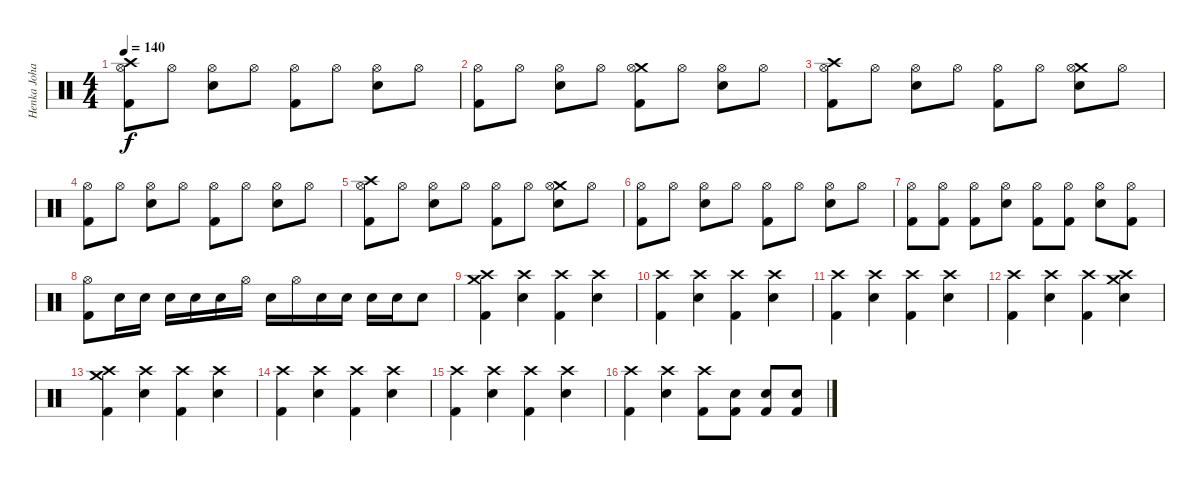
\track ("Henka Johannson " "Henka Joha") {instrument percussion}
\staff {score}
\articulation defaults
\ts (4 4)
\tempo 140
\clef neutral
\ks c
("Crash high (hit)" "Hi-Hat (open)" "Kick (hit) 2").8{dy f} "Hi-Hat (open)".8 ("Hi-Hat (open)" "Electric Snare (hit)").8 "Hi-Hat (open)".8 ("Hi-Hat (open)" "Kick (hit) 2").8 "Hi-Hat (open)".8 ("Hi-Hat (open)" "Electric Snare (hit)").8 "Hi-Hat (open)".8 |
("Hi-Hat (open)" "Kick (hit) 2").8 "Hi-Hat (open)".8 ("Hi-Hat (open)" "Electric Snare (hit)").8 "Hi-Hat (open)".8 ("Crash medium (hit)" "Hi-Hat (open)" "Kick (hit) 2").8 "Hi-Hat (open)".8 ("Hi-Hat (open)" "Electric Snare (hit)").8 "Hi-Hat (open)".8 |
("Crash high (hit)" "Hi-Hat (open)" "Kick (hit) 2").8 "Hi-Hat (open)".8 ("Hi-Hat (open)" "Electric Snare (hit)").8 "Hi-Hat (open)".8 ("Hi-Hat (open)" "Kick (hit) 2").8 "Hi-Hat (open)".8 ("Crash medium (hit)" "Hi-Hat (open)" "Electric Snare (hit)").8 "Hi-Hat (open)".8 |
("Hi-Hat (open)" "Kick (hit) 2").8 "Hi-Hat (open)".8 ("Hi-Hat (open)" "Electric Snare (hit)").8 "Hi-Hat (open)".8 ("Hi-Hat (open)" "Kick (hit) 2").8 "Hi-Hat (open)".8 ("Hi-Hat (open)" "Electric Snare (hit)").8 "Hi-Hat (open)".8 |
("Crash high (hit)" "Hi-Hat (open)" "Kick (hit) 2").8 "Hi-Hat (open)".8 ("Hi-Hat (open)" "Electric Snare (hit)").8 "Hi-Hat (open)".8 ("Hi-Hat (open)" "Kick (hit) 2").8 "Hi-Hat (open)".8 ("Crash medium (hit)" "Hi-Hat (open)" "Electric Snare (hit)").8 "Hi-Hat (open)".8 |
("Hi-Hat (open)" "Kick (hit) 2").8 "Hi-Hat (open)".8 ("Hi-Hat (open)" "Electric Snare (hit)").8 "Hi-Hat (open)".8 ("Hi-Hat (open)" "Kick (hit) 2").8 "Hi-Hat (open)".8 ("Hi-Hat (open)" "Electric Snare (hit)").8 "Hi-Hat (open)".8 |
("Hi-Hat (open)" "Kick (hit) 2").8 ("Hi-Hat (open)" "Kick (hit) 2").8 ("Hi-Hat (open)" "Kick (hit) 2").8 ("Hi-Hat (open)" "Electric Snare (hit)").8 ("Hi-Hat (open)" "Kick (hit) 2").8 ("Hi-Hat (open)" "Kick (hit) 2").8 ("Hi-Hat (open)" "Electric Snare (hit)").8 ("Hi-Hat (open)" "Kick (hit) 2").8 |
("Hi-Hat (open)" "Kick (hit) 2").8 "Electric Snare (hit)".16 "Electric Snare (hit)".16 "Electric Snare (hit)".16 "Electric Snare (hit)".16 "Electric Snare (hit)".16 "Hi-Hat (open)".16 "Electric Snare (hit)".16 "Hi-Hat (open)".16 "Electric Snare (hit)".16 "Electric Snare (hit)".16 "Electric Snare (hit)".16 "Electric Snare (hit)".16 "Electric Snare (hit)".8 |
("Crash medium (hit)" "Crash high (hit)" "Kick (hit) 2").4 ("Crash high (hit)" "Electric Snare (hit)").4 ("Crash high (hit)" "Kick (hit) 2").4 ("Crash high (hit)" "Electric Snare (hit)").4 |
("Crash high (hit)" "Kick (hit) 2").4 ("Crash high (hit)" "Electric Snare (hit)").4 ("Crash high (hit)" "Kick (hit) 2").4 ("Crash high (hit)" "Electric Snare (hit)").4 |
("Crash high (hit)" "Kick (hit) 2").4 ("Crash high (hit)" "Electric Snare (hit)").4 ("Crash high (hit)" "Kick (hit) 2").4 ("Crash high (hit)" "Electric Snare (hit)").4 |
("Crash high (hit)" "Kick (hit) 2").4 ("Crash high (hit)" "Electric Snare (hit)").4 ("Crash high (hit)" "Kick (hit) 2").4 ("Crash medium (hit)" "Crash high (hit)" "Electric Snare (hit)").4 |
("Crash medium (hit)" "Crash high (hit)" "Kick (hit) 2").4 ("Crash high (hit)" "Electric Snare (hit)").4 ("Crash high (hit)" "Kick (hit) 2").4 ("Crash high (hit)" "Electric Snare (hit)").4 |
("Crash high (hit)" "Kick (hit) 2").4 ("Crash high (hit)" "Electric Snare (hit)").4 ("Crash high (hit)" "Kick (hit) 2").4 ("Crash high (hit)" "Electric Snare (hit)").4 |
("Crash high (hit)" "Kick (hit) 2").4 ("Crash high (hit)" "Electric Snare (hit)").4 ("Crash high (hit)" "Kick (hit) 2").4 ("Crash high (hit)" "Electric Snare (hit)").4 |
("Crash high (hit)" "Kick (hit) 2").4 ("Crash high (hit)" "Electric Snare (hit)").4 ("Crash high (hit)" "Kick (hit) 2").8 ("Electric Snare (hit)" "Kick (hit) 2").8 ("Electric Snare (hit)" "Kick (hit) 2").8 ("Electric Snare (hit)" "Kick (hit) 2").8
